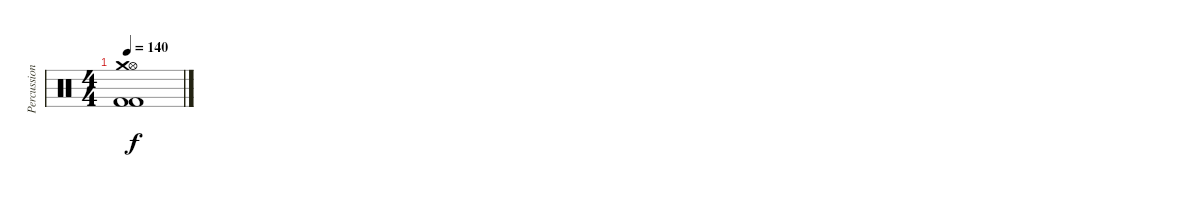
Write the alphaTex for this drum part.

\track ("Percussion" "Percussion") {instrument percussion}
\staff {score}
\articulation defaults
\ts (4 4)
\tempo 140
\clef neutral
\ks c
("Hi-Hat (open)" "Crash medium (hit)" "Kick (hit) 2" "Kick (hit) 2").1{dy f}
